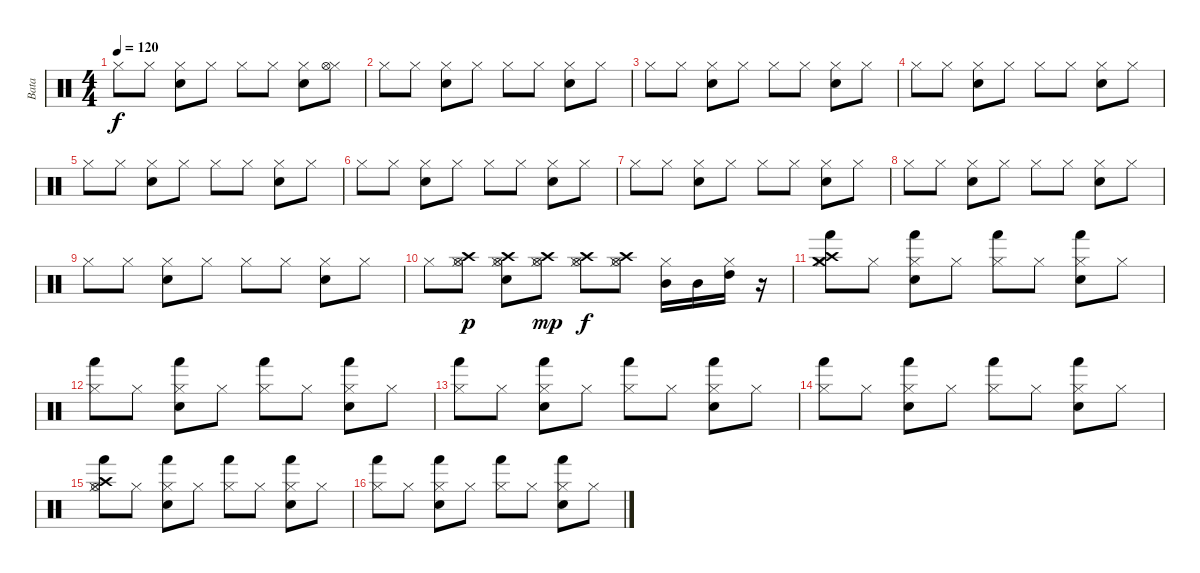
\track ("Bata" "Bata") {instrument percussion}
\staff {score}
\articulation defaults
\ts (4 4)
\tempo 120
\clef neutral
\ks c "Hi-Hat (closed)".8{dy f} "Hi-Hat (closed)".8
("Hi-Hat (closed)" "Electric Snare (hit)").8 "Hi-Hat (closed)".8 "Hi-Hat (closed)".8 "Hi-Hat (closed)".8 ("Hi-Hat (closed)" "Electric Snare (hit)").8 ("Hi-Hat (closed)" "Hi-Hat (open)").8 |
"Hi-Hat (closed)".8 "Hi-Hat (closed)".8 ("Hi-Hat (closed)" "Electric Snare (hit)").8 "Hi-Hat (closed)".8 "Hi-Hat (closed)".8 "Hi-Hat (closed)".8 ("Hi-Hat (closed)" "Electric Snare (hit)").8 "Hi-Hat (closed)".8 |
"Hi-Hat (closed)".8 "Hi-Hat (closed)".8 ("Hi-Hat (closed)" "Electric Snare (hit)").8 "Hi-Hat (closed)".8 "Hi-Hat (closed)".8 "Hi-Hat (closed)".8 ("Hi-Hat (closed)" "Electric Snare (hit)").8 "Hi-Hat (closed)".8 |
"Hi-Hat (closed)".8 "Hi-Hat (closed)".8 ("Hi-Hat (closed)" "Electric Snare (hit)").8 "Hi-Hat (closed)".8 "Hi-Hat (closed)".8 "Hi-Hat (closed)".8 ("Hi-Hat (closed)" "Electric Snare (hit)").8 "Hi-Hat (closed)".8 |
"Hi-Hat (closed)".8 "Hi-Hat (closed)".8 ("Hi-Hat (closed)" "Electric Snare (hit)").8 "Hi-Hat (closed)".8 "Hi-Hat (closed)".8 "Hi-Hat (closed)".8 ("Hi-Hat (closed)" "Electric Snare (hit)").8 "Hi-Hat (closed)".8 |
"Hi-Hat (closed)".8 "Hi-Hat (closed)".8 ("Hi-Hat (closed)" "Electric Snare (hit)").8 "Hi-Hat (closed)".8 "Hi-Hat (closed)".8 "Hi-Hat (closed)".8 ("Hi-Hat (closed)" "Electric Snare (hit)").8 "Hi-Hat (closed)".8 |
"Hi-Hat (closed)".8 "Hi-Hat (closed)".8 ("Hi-Hat (closed)" "Electric Snare (hit)").8 "Hi-Hat (closed)".8 "Hi-Hat (closed)".8 "Hi-Hat (closed)".8 ("Hi-Hat (closed)" "Electric Snare (hit)").8 "Hi-Hat (closed)".8 |
"Hi-Hat (closed)".8 "Hi-Hat (closed)".8 ("Hi-Hat (closed)" "Electric Snare (hit)").8 "Hi-Hat (closed)".8 "Hi-Hat (closed)".8 "Hi-Hat (closed)".8 ("Hi-Hat (closed)" "Electric Snare (hit)").8 "Hi-Hat (closed)".8 |
"Hi-Hat (closed)".8 "Hi-Hat (closed)".8 ("Hi-Hat (closed)" "Electric Snare (hit)").8 "Hi-Hat (closed)".8 "Hi-Hat (closed)".8 "Hi-Hat (closed)".8 ("Hi-Hat (closed)" "Electric Snare (hit)").8 "Hi-Hat (closed)".8 |
"Hi-Hat (closed)".8 ("Hi-Hat (closed)" "Hi-Hat (open)" "Crash high (hit)").8{dy p} ("Hi-Hat (closed)" "Electric Snare (hit)" "Hi-Hat (open)" "Crash high (hit)").8 ("Hi-Hat (closed)" "Hi-Hat (open)" "Crash high (hit)").8{dy mp} ("Hi-Hat (closed)" "Hi-Hat (open)" "Crash high (hit)").8{dy f} ("Hi-Hat (closed)" "Hi-Hat (open)" "Crash high (hit)").8 ("Hi-Hat (closed)" "Mid Tom (hit)").16 "Mid Tom (hit)".16 ("Hi-Hat (closed)" "High Tom (hit)").16 r.16 |
("Hi-Hat (closed)" "Crash high (hit)" "Crash medium (hit)" "Hand (hit)").8 "Hi-Hat (closed)".8 ("Hi-Hat (closed)" "Electric Snare (hit)" "Hand (hit)").8 "Hi-Hat (closed)".8 ("Hi-Hat (closed)" "Hand (hit)").8 "Hi-Hat (closed)".8 ("Hi-Hat (closed)" "Electric Snare (hit)" "Hand (hit)").8 "Hi-Hat (closed)".8 |
("Hi-Hat (closed)" "Hand (hit)").8 "Hi-Hat (closed)".8 ("Hi-Hat (closed)" "Electric Snare (hit)" "Hand (hit)").8 "Hi-Hat (closed)".8 ("Hi-Hat (closed)" "Hand (hit)").8 "Hi-Hat (closed)".8 ("Hi-Hat (closed)" "Electric Snare (hit)" "Hand (hit)").8 "Hi-Hat (closed)".8 |
("Hi-Hat (closed)" "Hand (hit)").8 "Hi-Hat (closed)".8 ("Hi-Hat (closed)" "Electric Snare (hit)" "Hand (hit)").8 "Hi-Hat (closed)".8 ("Hi-Hat (closed)" "Hand (hit)").8 "Hi-Hat (closed)".8 ("Hi-Hat (closed)" "Electric Snare (hit)" "Hand (hit)").8 "Hi-Hat (closed)".8 |
("Hi-Hat (closed)" "Hand (hit)").8 "Hi-Hat (closed)".8 ("Hi-Hat (closed)" "Electric Snare (hit)" "Hand (hit)").8 "Hi-Hat (closed)".8 ("Hi-Hat (closed)" "Hand (hit)").8 "Hi-Hat (closed)".8 ("Hi-Hat (closed)" "Electric Snare (hit)" "Hand (hit)").8 "Hi-Hat (closed)".8 |
("Hi-Hat (closed)" "Hi-Hat (open)" "Crash high (hit)" "Hand (hit)").8 "Hi-Hat (closed)".8 ("Hi-Hat (closed)" "Electric Snare (hit)" "Hand (hit)").8 "Hi-Hat (closed)".8 ("Hi-Hat (closed)" "Hand (hit)").8 "Hi-Hat (closed)".8 ("Hi-Hat (closed)" "Electric Snare (hit)" "Hand (hit)").8 "Hi-Hat (closed)".8 |
("Hi-Hat (closed)" "Hand (hit)").8 "Hi-Hat (closed)".8 ("Hi-Hat (closed)" "Electric Snare (hit)" "Hand (hit)").8 "Hi-Hat (closed)".8 ("Hi-Hat (closed)" "Hand (hit)").8 "Hi-Hat (closed)".8 ("Hi-Hat (closed)" "Electric Snare (hit)" "Hand (hit)").8 "Hi-Hat (closed)".8
